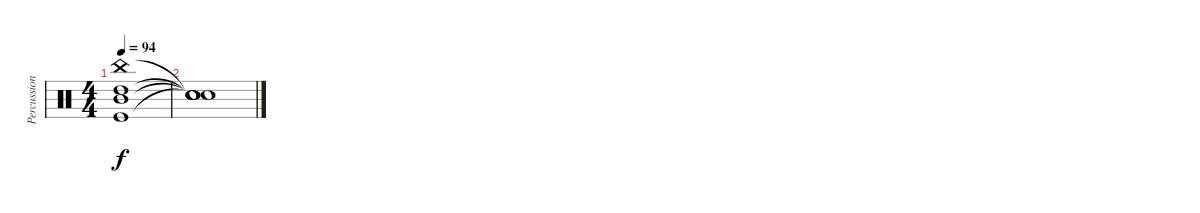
\track ("Percussions" "Percussion") {instrument percussion}
\staff {score}
\articulation defaults
\ts (4 4)
\tempo 94
\clef neutral
\ks c
("China (hit)" "Mid Tom (hit)" "High Tom (hit)" "Kick (hit)").1{dy f} |
("Snare (hit)"{t} "Snare (hit)"{t} "Snare (hit)"{t} "Snare (hit)"{t}).1
